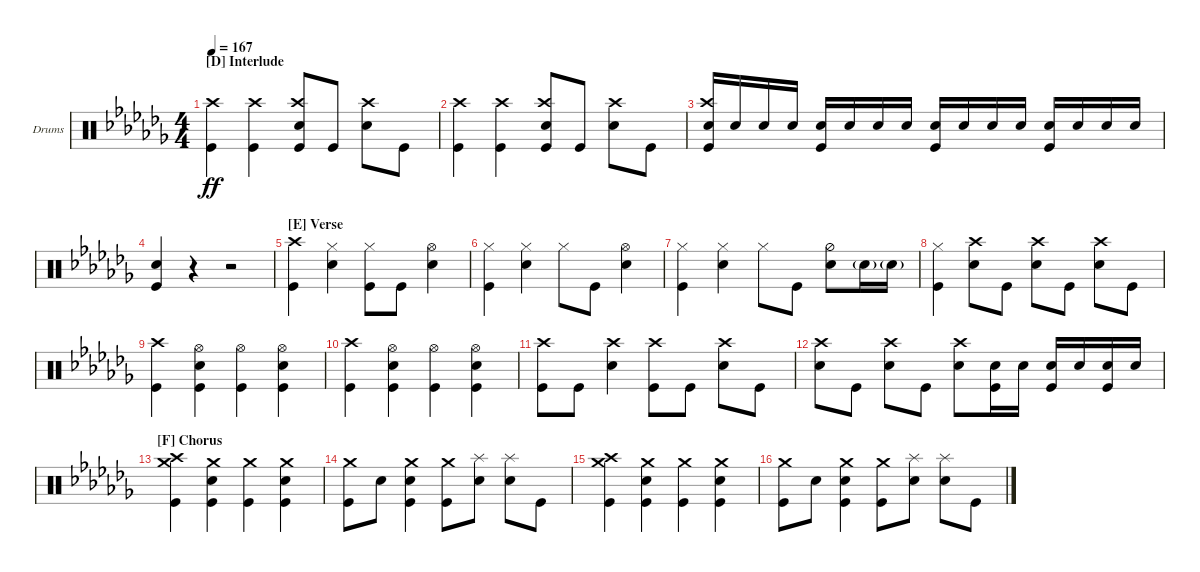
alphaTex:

\defaultSystemsLayout 4
\bracketExtendMode groupsimilarinstruments
\firstSystemTrackNameOrientation horizontal
\otherSystemsTrackNameOrientation horizontal
\track ("Drumkit" "Drums") {instrument percussion}
\staff {score}
\articulation defaults
\ts (4 4)
\section ("D" "Interlude")
\tempo 167
\clef neutral
\ks abminor
("Kick (hit)" "Crash high (hit)").4{dy ff} ("Kick (hit)" "Crash high (hit)").4 ("Snare (hit) 2" "Kick (hit)" "Crash high (hit)").8 "Kick (hit)".8 ("Snare (hit) 2" "Crash high (hit)").8 "Kick (hit)".8 |
("Kick (hit)" "Crash high (hit)").4 ("Kick (hit)" "Crash high (hit)").4 ("Snare (hit) 2" "Kick (hit)" "Crash high (hit)").8 "Kick (hit)".8 ("Snare (hit) 2" "Crash high (hit)").8 "Kick (hit)".8 |
("Snare (hit) 2" "Crash high (hit)" "Kick (hit)").16 "Snare (hit) 2".16 "Snare (hit) 2".16 "Snare (hit) 2".16 ("Snare (hit) 2" "Kick (hit)").16 "Snare (hit) 2".16 "Snare (hit) 2".16 "Snare (hit) 2".16 ("Snare (hit) 2" "Kick (hit)").16 "Snare (hit) 2".16 "Snare (hit) 2".16 "Snare (hit) 2".16 ("Snare (hit) 2" "Kick (hit)").16 "Snare (hit) 2".16 "Snare (hit) 2".16 "Snare (hit) 2".16 |
("Kick (hit)" "Snare (hit) 2").4 r.4 r.2 |
\section ("E" "Verse")
("Crash high (hit)" "Kick (hit)").4 ("Snare (hit) 2" "Hi-Hat (closed)").4 ("Kick (hit)" "Hi-Hat (closed)").8 "Kick (hit)".8 ("Hi-Hat (open)" "Snare (hit) 2").4 |
("Kick (hit)" "Hi-Hat (closed)").4 ("Snare (hit) 2" "Hi-Hat (closed)").4 "Hi-Hat (closed)".8 "Kick (hit)".8 ("Hi-Hat (open)" "Snare (hit) 2").4 |
("Kick (hit)" "Hi-Hat (closed)").4 ("Snare (hit) 2" "Hi-Hat (closed)").4 "Hi-Hat (closed)".8 "Kick (hit)".8 ("Hi-Hat (half)" "Snare (hit) 2").8 "Snare (hit) 2"{g}.16 "Snare (hit) 2"{g}.16 |
("Kick (hit)" "Hi-Hat (closed)").4 ("Snare (hit) 2" "Crash high (hit)").8 "Kick (hit)".8 ("Snare (hit) 2" "Crash high (hit)").8 "Kick (hit)".8 ("Snare (hit) 2" "Crash high (hit)").8 "Kick (hit)".8 |
("Kick (hit)" "Crash high (hit)").4 ("Kick (hit)" "Snare (hit) 2" "Hi-Hat (open)").4 ("Kick (hit)" "Hi-Hat (open)").4 ("Kick (hit)" "Snare (hit) 2" "Hi-Hat (open)").4 |
("Kick (hit)" "Crash high (hit)").4 ("Kick (hit)" "Snare (hit) 2" "Hi-Hat (open)").4 ("Kick (hit)" "Hi-Hat (open)").4 ("Kick (hit)" "Snare (hit) 2" "Hi-Hat (open)").4 |
("Crash high (hit)" "Kick (hit)").8 "Kick (hit)".8 ("Snare (hit) 2" "Crash high (hit)").4 ("Crash high (hit)" "Kick (hit)").8 "Kick (hit)".8 ("Snare (hit) 2" "Crash high (hit)").8 "Kick (hit)".8 |
("Crash high (hit)" "Snare (hit) 2").8 "Kick (hit)".8 ("Snare (hit) 2" "Crash high (hit)").8 "Kick (hit)".8 ("Snare (hit) 2" "Crash high (hit)").8 ("Snare (hit) 2" "Kick (hit)").16 "Snare (hit) 2".16 ("Snare (hit) 2" "Kick (hit)").16 "Snare (hit) 2".16 ("Snare (hit) 2" "Kick (hit)").16 "Snare (hit) 2".16 |
\section ("F" "Chorus")
("Crash medium (hit)" "Crash high (hit)" "Kick (hit)").4 ("Snare (hit) 2" "Kick (hit)" "Crash medium (hit)").4 ("Kick (hit)" "Crash medium (hit)").4 ("Snare (hit) 2" "Kick (hit)" "Crash medium (hit)").4 |
("Kick (hit)" "Crash medium (hit)").8 "Snare (hit) 2".8 ("Snare (hit) 2" "Kick (hit)" "Crash medium (hit)").4 ("Kick (hit)" "Crash medium (hit)").8 ("Snare (hit) 2" "Splash (hit)").8 ("Snare (hit) 2" "Splash (hit)").8 "Kick (hit)".8 |
("Crash medium (hit)" "Crash high (hit)" "Kick (hit)").4 ("Snare (hit) 2" "Kick (hit)" "Crash medium (hit)").4 ("Kick (hit)" "Crash medium (hit)").4 ("Snare (hit) 2" "Kick (hit)" "Crash medium (hit)").4 |
("Kick (hit)" "Crash medium (hit)").8 "Snare (hit) 2".8 ("Snare (hit) 2" "Kick (hit)" "Crash medium (hit)").4 ("Kick (hit)" "Crash medium (hit)").8 ("Snare (hit) 2" "Splash (hit)").8 ("Snare (hit) 2" "Splash (hit)").8 "Kick (hit)".8
